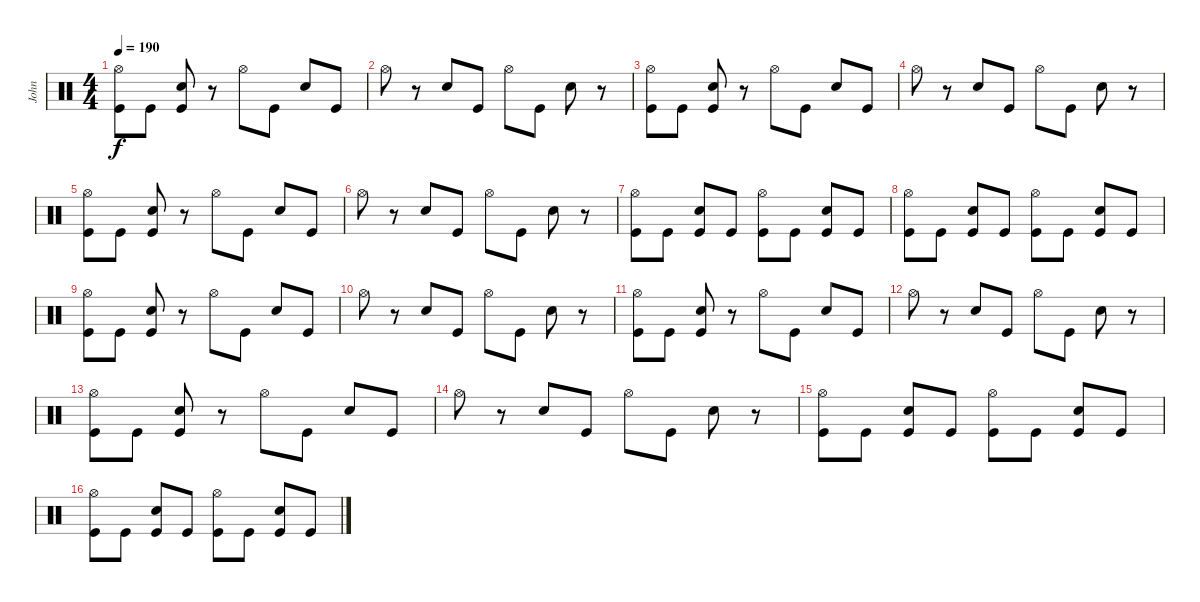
\track ("John" "John") {instrument percussion}
\staff {score}
\articulation defaults
\ts (4 4)
\tempo 190
\clef neutral
\ks c
("Kick (hit)" "Hi-Hat (open)").8{dy f} "Kick (hit)".8 ("Kick (hit)" "Snare (hit) 2").8 r.8 "Hi-Hat (open)".8 "Kick (hit)".8 "Snare (hit) 2".8 "Kick (hit)".8 |
"Hi-Hat (open)".8 r.8 "Snare (hit) 2".8 "Kick (hit)".8 "Hi-Hat (open)".8 "Kick (hit)".8 "Snare (hit) 2".8 r.8 |
("Kick (hit)" "Hi-Hat (open)").8 "Kick (hit)".8 ("Kick (hit)" "Snare (hit) 2").8 r.8 "Hi-Hat (open)".8 "Kick (hit)".8 "Snare (hit) 2".8 "Kick (hit)".8 |
"Hi-Hat (open)".8 r.8 "Snare (hit) 2".8 "Kick (hit)".8 "Hi-Hat (open)".8 "Kick (hit)".8 "Snare (hit) 2".8 r.8 |
("Kick (hit)" "Hi-Hat (open)").8 "Kick (hit)".8 ("Kick (hit)" "Snare (hit) 2").8 r.8 "Hi-Hat (open)".8 "Kick (hit)".8 "Snare (hit) 2".8 "Kick (hit)".8 |
"Hi-Hat (open)".8 r.8 "Snare (hit) 2".8 "Kick (hit)".8 "Hi-Hat (open)".8 "Kick (hit)".8 "Snare (hit) 2".8 r.8 |
("Kick (hit)" "Hi-Hat (open)").8 "Kick (hit)".8 ("Kick (hit)" "Snare (hit) 2").8 "Kick (hit)".8 ("Kick (hit)" "Hi-Hat (open)").8 "Kick (hit)".8 ("Kick (hit)" "Snare (hit) 2").8 "Kick (hit)".8 |
("Kick (hit)" "Hi-Hat (open)").8 "Kick (hit)".8 ("Kick (hit)" "Snare (hit) 2").8 "Kick (hit)".8 ("Kick (hit)" "Hi-Hat (open)").8 "Kick (hit)".8 ("Kick (hit)" "Snare (hit) 2").8 "Kick (hit)".8 |
("Kick (hit)" "Hi-Hat (open)").8 "Kick (hit)".8 ("Kick (hit)" "Snare (hit) 2").8 r.8 "Hi-Hat (open)".8 "Kick (hit)".8 "Snare (hit) 2".8 "Kick (hit)".8 |
"Hi-Hat (open)".8 r.8 "Snare (hit) 2".8 "Kick (hit)".8 "Hi-Hat (open)".8 "Kick (hit)".8 "Snare (hit) 2".8 r.8 |
("Kick (hit)" "Hi-Hat (open)").8 "Kick (hit)".8 ("Kick (hit)" "Snare (hit) 2").8 r.8 "Hi-Hat (open)".8 "Kick (hit)".8 "Snare (hit) 2".8 "Kick (hit)".8 |
"Hi-Hat (open)".8 r.8 "Snare (hit) 2".8 "Kick (hit)".8 "Hi-Hat (open)".8 "Kick (hit)".8 "Snare (hit) 2".8 r.8 |
("Kick (hit)" "Hi-Hat (open)").8 "Kick (hit)".8 ("Kick (hit)" "Snare (hit) 2").8 r.8 "Hi-Hat (open)".8 "Kick (hit)".8 "Snare (hit) 2".8 "Kick (hit)".8 |
"Hi-Hat (open)".8 r.8 "Snare (hit) 2".8 "Kick (hit)".8 "Hi-Hat (open)".8 "Kick (hit)".8 "Snare (hit) 2".8 r.8 |
("Kick (hit)" "Hi-Hat (open)").8 "Kick (hit)".8 ("Kick (hit)" "Snare (hit) 2").8 "Kick (hit)".8 ("Kick (hit)" "Hi-Hat (open)").8 "Kick (hit)".8 ("Kick (hit)" "Snare (hit) 2").8 "Kick (hit)".8 |
("Kick (hit)" "Hi-Hat (open)").8 "Kick (hit)".8 ("Kick (hit)" "Snare (hit) 2").8 "Kick (hit)".8 ("Kick (hit)" "Hi-Hat (open)").8 "Kick (hit)".8 ("Kick (hit)" "Snare (hit) 2").8 "Kick (hit)".8
